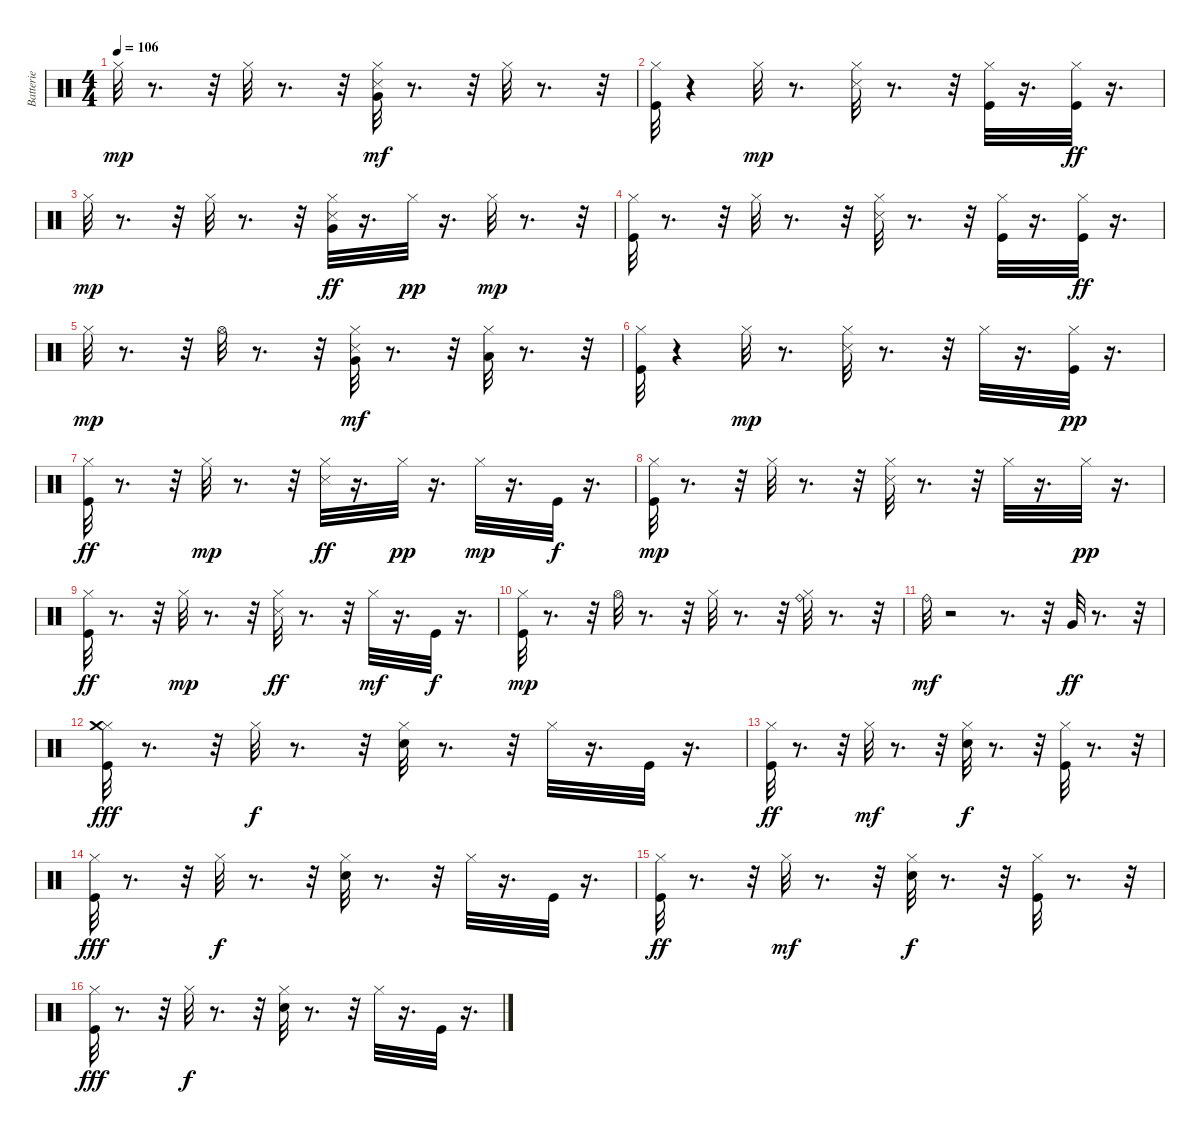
\track ("Batterie" "Batterie") {instrument percussion}
\staff {score}
\articulation defaults
\ts (4 4)
\tempo 106
\clef neutral
\ks c "Hi-Hat (closed)".32{dy mp}
r.8{d} r.32 "Hi-Hat (closed)".32 r.8{d} r.32 ("Hi-Hat (closed)" "Snare (side stick) 3" "Very Low Tom (hit)").32{dy mf} r.8{d} r.32 "Hi-Hat (closed)".32 r.8{d} r.32 |
("Kick (hit)" "Hi-Hat (closed)").32 r.4 "Hi-Hat (closed)".32{dy mp} r.8{d} ("Snare (side stick) 3" "Hi-Hat (closed)").32 r.8{d} r.32 ("Hi-Hat (closed)" "Kick (hit)").32 r.16{d} ("Hi-Hat (closed)" "Kick (hit)").32{dy ff} r.16{d} |
"Hi-Hat (closed)".32{dy mp} r.8{d} r.32 "Hi-Hat (closed)".32 r.8{d} r.32 ("Hi-Hat (closed)" "Very Low Tom (hit)" "Snare (side stick) 3").32{dy ff} r.16{d} "Hi-Hat (closed)".32{dy pp} r.16{d} "Hi-Hat (closed)".32{dy mp} r.8{d} r.32 |
("Hi-Hat (closed)" "Kick (hit)").32 r.8{d} r.32 "Hi-Hat (closed)".32 r.8{d} r.32 ("Snare (side stick) 3" "Hi-Hat (closed)").32 r.8{d} r.32 ("Kick (hit)" "Hi-Hat (closed)").32 r.16{d} ("Hi-Hat (closed)" "Kick (hit)").32{dy ff} r.16{d} |
"Hi-Hat (closed)".32{dy mp} r.8{d} r.32 "Hi-Hat (open)".32 r.8{d} r.32 ("Hi-Hat (closed)" "Snare (side stick) 3" "Very Low Tom (hit)").32{dy mf} r.8{d} r.32 ("Low Tom (hit)" "Hi-Hat (closed)").32 r.8{d} r.32 |
("Kick (hit)" "Hi-Hat (closed)").32 r.4 "Hi-Hat (closed)".32{dy mp} r.8{d} ("Snare (side stick) 3" "Hi-Hat (closed)").32 r.8{d} r.32 "Hi-Hat (closed)".32 r.16{d} ("Hi-Hat (closed)" "Kick (hit)").32{dy pp} r.16{d} |
("Hi-Hat (closed)" "Kick (hit)").32{dy ff} r.8{d} r.32 "Hi-Hat (closed)".32{dy mp} r.8{d} r.32 ("Hi-Hat (closed)" "Snare (side stick) 3").32{dy ff} r.16{d} "Hi-Hat (closed)".32{dy pp} r.16{d} "Hi-Hat (closed)".32{dy mp} r.16{d} "Kick (hit)".32{dy f} r.16{d} |
("Hi-Hat (closed)" "Kick (hit)").32{dy mp} r.8{d} r.32 "Hi-Hat (closed)".32 r.8{d} r.32 ("Snare (side stick) 3" "Hi-Hat (closed)").32 r.8{d} r.32 "Hi-Hat (closed)".32 r.16{d} "Hi-Hat (closed)".32{dy pp} r.16{d} |
("Hi-Hat (closed)" "Kick (hit)").32{dy ff} r.8{d} r.32 "Hi-Hat (closed)".32{dy mp} r.8{d} r.32 ("Hi-Hat (closed)" "Snare (side stick) 3").32{dy ff} r.8{d} r.32 "Hi-Hat (closed)".32{dy mf} r.16{d} "Kick (hit)".32{dy f} r.16{d} |
("Kick (hit)" "Hi-Hat (closed)").32{dy mp} r.8{d} r.32 "Hi-Hat (open)".32 r.8{d} r.32 "Hi-Hat (closed)".32 r.8{d} r.32 ("Hi-Hat (closed)" "Ride (bell)").32 r.8{d} r.32 |
"Ride (bell)".32{dy mf} r.2 r.8{d} r.32 "Very Low Tom (hit)".32{dy ff} r.8{d} r.32 |
("Hi-Hat (closed)" "Crash medium (hit)" "Kick (hit)").32{dy fff} r.8{d} r.32 "Hi-Hat (closed)".32{dy f} r.8{d} r.32 ("Snare (hit) 2" "Hi-Hat (closed)").32 r.8{d} r.32 "Hi-Hat (closed)".32 r.16{d} "Kick (hit)".32 r.16{d} |
("Kick (hit)" "Hi-Hat (closed)").32{dy ff} r.8{d} r.32 "Hi-Hat (closed)".32{dy mf} r.8{d} r.32 ("Snare (hit) 2" "Hi-Hat (closed)").32{dy f} r.8{d} r.32 ("Kick (hit)" "Hi-Hat (closed)").32 r.8{d} r.32 |
("Hi-Hat (closed)" "Kick (hit)").32{dy fff} r.8{d} r.32 "Hi-Hat (closed)".32{dy f} r.8{d} r.32 ("Snare (hit) 2" "Hi-Hat (closed)").32 r.8{d} r.32 "Hi-Hat (closed)".32 r.16{d} "Kick (hit)".32 r.16{d} |
("Kick (hit)" "Hi-Hat (closed)").32{dy ff} r.8{d} r.32 "Hi-Hat (closed)".32{dy mf} r.8{d} r.32 ("Hi-Hat (closed)" "Snare (hit) 2").32{dy f} r.8{d} r.32 ("Kick (hit)" "Hi-Hat (closed)").32 r.8{d} r.32 |
("Hi-Hat (closed)" "Kick (hit)").32{dy fff} r.8{d} r.32 "Hi-Hat (closed)".32{dy f} r.8{d} r.32 ("Snare (hit) 2" "Hi-Hat (closed)").32 r.8{d} r.32 "Hi-Hat (closed)".32 r.16{d} "Kick (hit)".32 r.16{d}
